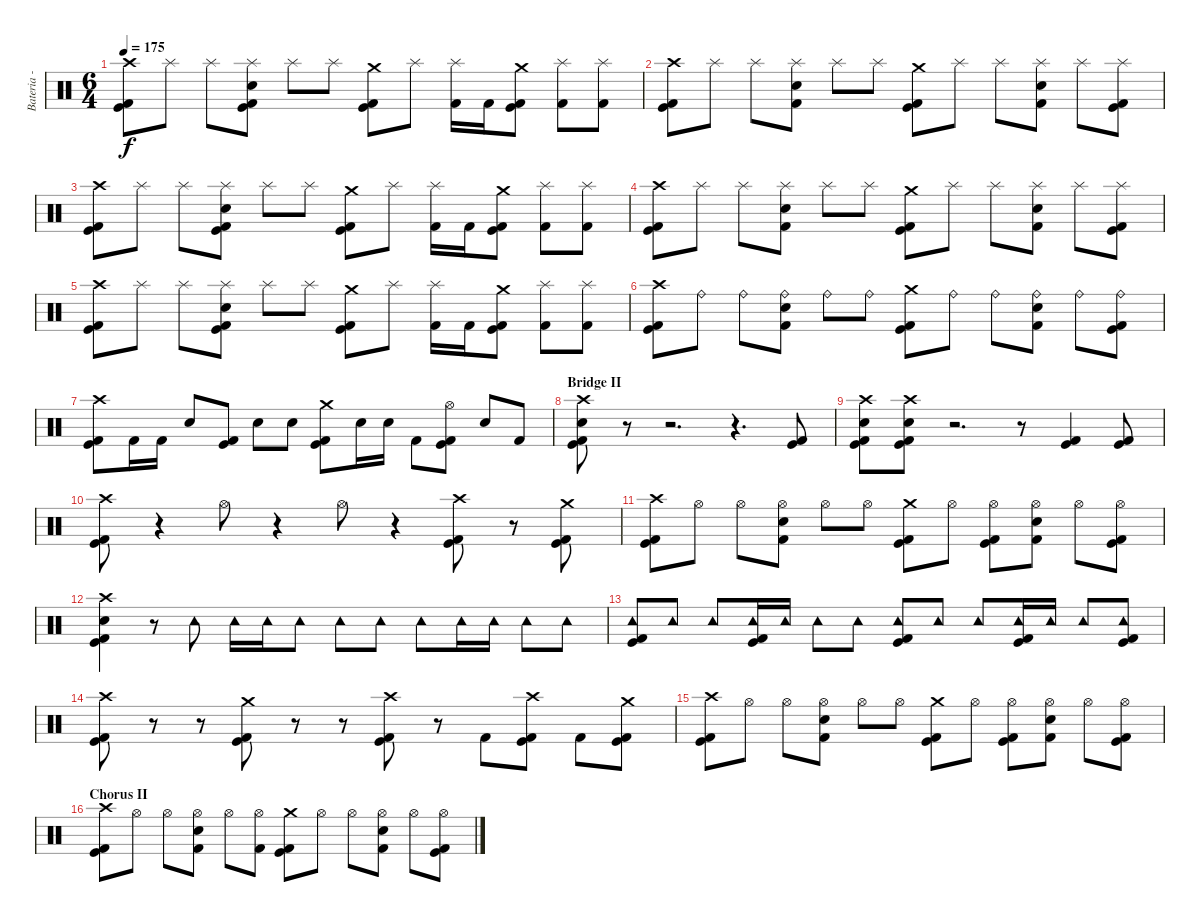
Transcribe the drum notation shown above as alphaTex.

\track ("Bateria - Drums" "Bateria - ") {instrument percussion}
\staff {score}
\articulation defaults
\ts (6 4)
\tempo 175
\clef neutral
\ks c
("Crash high (hit)" "Kick (hit)" "Kick (hit) 2").8{dy f} "Splash (hit)".8 "Splash (hit)".8 ("Splash (hit)" "Snare (hit) 2" "Kick (hit)" "Kick (hit) 2").8 "Splash (hit)".8 "Splash (hit)".8 ("Crash medium (hit)" "Kick (hit)" "Kick (hit) 2").8 "Splash (hit)".8 ("Splash (hit)" "Kick (hit) 2").16 "Kick (hit) 2".16 ("Crash medium (hit)" "Kick (hit)" "Kick (hit) 2").8 ("Splash (hit)" "Kick (hit) 2").8 ("Splash (hit)" "Kick (hit) 2").8 |
("Crash high (hit)" "Kick (hit)" "Kick (hit) 2").8 "Splash (hit)".8 "Splash (hit)".8 ("Splash (hit)" "Snare (hit) 2" "Kick (hit) 2").8 "Splash (hit)".8 "Splash (hit)".8 ("Crash medium (hit)" "Kick (hit)" "Kick (hit) 2").8 "Splash (hit)".8 "Splash (hit)".8 ("Splash (hit)" "Snare (hit) 2" "Kick (hit) 2").8 "Splash (hit)".8 ("Splash (hit)" "Kick (hit)" "Kick (hit) 2").8 |
("Crash high (hit)" "Kick (hit)" "Kick (hit) 2").8 "Splash (hit)".8 "Splash (hit)".8 ("Splash (hit)" "Snare (hit) 2" "Kick (hit)" "Kick (hit) 2").8 "Splash (hit)".8 "Splash (hit)".8 ("Crash medium (hit)" "Kick (hit)" "Kick (hit) 2").8 "Splash (hit)".8 ("Splash (hit)" "Kick (hit) 2").16 "Kick (hit) 2".16 ("Crash medium (hit)" "Kick (hit)" "Kick (hit) 2").8 ("Splash (hit)" "Kick (hit) 2").8 ("Splash (hit)" "Kick (hit) 2").8 |
("Crash high (hit)" "Kick (hit)" "Kick (hit) 2").8 "Splash (hit)".8 "Splash (hit)".8 ("Splash (hit)" "Snare (hit) 2" "Kick (hit) 2").8 "Splash (hit)".8 "Splash (hit)".8 ("Crash medium (hit)" "Kick (hit)" "Kick (hit) 2").8 "Splash (hit)".8 "Splash (hit)".8 ("Splash (hit)" "Snare (hit) 2" "Kick (hit) 2").8 "Splash (hit)".8 ("Splash (hit)" "Kick (hit)" "Kick (hit) 2").8 |
("Crash high (hit)" "Kick (hit)" "Kick (hit) 2").8 "Splash (hit)".8 "Splash (hit)".8 ("Splash (hit)" "Snare (hit) 2" "Kick (hit)" "Kick (hit) 2").8 "Splash (hit)".8 "Splash (hit)".8 ("Crash medium (hit)" "Kick (hit)" "Kick (hit) 2").8 "Splash (hit)".8 ("Splash (hit)" "Kick (hit) 2").16 "Kick (hit) 2".16 ("Crash medium (hit)" "Kick (hit)" "Kick (hit) 2").8 ("Splash (hit)" "Kick (hit) 2").8 ("Splash (hit)" "Kick (hit) 2").8 |
("Crash high (hit)" "Kick (hit)" "Kick (hit) 2").8 "Ride (bell)".8 "Ride (bell)".8 ("Ride (bell)" "Snare (hit) 2" "Kick (hit) 2").8 "Ride (bell)".8 "Ride (bell)".8 ("Crash medium (hit)" "Kick (hit)" "Kick (hit) 2").8 "Ride (bell)".8 "Ride (bell)".8 ("Ride (bell)" "Snare (hit) 2" "Kick (hit) 2").8 "Ride (bell)".8 ("Ride (bell)" "Kick (hit)" "Kick (hit) 2").8 |
("Crash high (hit)" "Kick (hit)" "Kick (hit) 2").8 "Kick (hit) 2".16 "Kick (hit) 2".16 "Snare (hit) 2".8 ("Kick (hit)" "Kick (hit) 2").8 "Snare (hit) 2".8 "Snare (hit) 2".8 ("Crash medium (hit)" "Kick (hit)" "Kick (hit) 2").8 "Electric Snare (hit)".16 "Electric Snare (hit)".16 "Kick (hit) 2".8 ("Hi-Hat (open)" "Kick (hit)" "Kick (hit) 2").8 "Snare (hit) 2".8 "Kick (hit) 2".8 |
\section ("" "Bridge II")
("Crash high (hit)" "Snare (hit) 2" "Kick (hit)" "Kick (hit) 2").8 r.8 r.2{d} r.4{d} ("Kick (hit)" "Kick (hit) 2").8 |
("Crash high (hit)" "Snare (hit) 2" "Kick (hit)" "Kick (hit) 2").8 ("Crash high (hit)" "Snare (hit) 2" "Kick (hit)" "Kick (hit) 2").8 r.2{d} r.8 ("Kick (hit)" "Kick (hit) 2").4 ("Kick (hit)" "Kick (hit) 2").8 |
("Crash high (hit)" "Kick (hit)" "Kick (hit) 2").8 r.4 "Hi-Hat (open)".8 r.4 "Hi-Hat (open)".8 r.4 ("Crash high (hit)" "Kick (hit)" "Kick (hit) 2").8 r.8 ("Crash medium (hit)" "Kick (hit)" "Kick (hit) 2").8 |
("Crash high (hit)" "Kick (hit)" "Kick (hit) 2").8 "Hi-Hat (open)".8 "Hi-Hat (open)".8 ("Hi-Hat (open)" "Snare (hit) 2" "Kick (hit) 2").8 "Hi-Hat (open)".8 "Hi-Hat (open)".8 ("Crash medium (hit)" "Kick (hit)" "Kick (hit) 2").8 "Hi-Hat (open)".8 ("Hi-Hat (open)" "Kick (hit)" "Kick (hit) 2").8 ("Hi-Hat (open)" "Snare (hit) 2" "Kick (hit) 2").8 "Hi-Hat (open)".8 ("Hi-Hat (open)" "Kick (hit)" "Kick (hit) 2").8 |
("Crash high (hit)" "Snare (hit) 2" "Kick (hit)" "Kick (hit) 2").4 r.8 "Tambourine (hit)".8 "Tambourine (hit)".16 "Tambourine (hit)".16 "Tambourine (hit)".8 "Tambourine (hit)".8 "Tambourine (hit)".8 "Tambourine (hit)".8 "Tambourine (hit)".16 "Tambourine (hit)".16 "Tambourine (hit)".8 "Tambourine (hit)".8 |
("Tambourine (hit)" "Kick (hit)" "Kick (hit) 2").8 "Tambourine (hit)".8 "Tambourine (hit)".8 ("Tambourine (hit)" "Kick (hit)" "Kick (hit) 2").16 "Tambourine (hit)".16 "Tambourine (hit)".8 "Tambourine (hit)".8 ("Tambourine (hit)" "Kick (hit)" "Kick (hit) 2").8 "Tambourine (hit)".8 "Tambourine (hit)".8 ("Tambourine (hit)" "Kick (hit)" "Kick (hit) 2").16 "Tambourine (hit)".16 "Tambourine (hit)".8 ("Tambourine (hit)" "Kick (hit)" "Kick (hit) 2").8 |
("Crash high (hit)" "Kick (hit)" "Kick (hit) 2").8 r.8 r.8 ("Crash medium (hit)" "Kick (hit)" "Kick (hit) 2").8 r.8 r.8 ("Crash high (hit)" "Kick (hit)" "Kick (hit) 2").8 r.8 "Kick (hit) 2".8 ("Crash high (hit)" "Kick (hit)" "Kick (hit) 2").8 "Kick (hit) 2".8 ("Crash medium (hit)" "Kick (hit)" "Kick (hit) 2").8 |
("Crash high (hit)" "Kick (hit)" "Kick (hit) 2").8 "Hi-Hat (open)".8 "Hi-Hat (open)".8 ("Hi-Hat (open)" "Snare (hit) 2" "Kick (hit) 2").8 "Hi-Hat (open)".8 "Hi-Hat (open)".8 ("Crash medium (hit)" "Kick (hit)" "Kick (hit) 2").8 "Hi-Hat (open)".8 ("Hi-Hat (open)" "Kick (hit)" "Kick (hit) 2").8 ("Hi-Hat (open)" "Snare (hit) 2" "Kick (hit) 2").8 "Hi-Hat (open)".8 ("Hi-Hat (open)" "Kick (hit)" "Kick (hit) 2").8 |
\section ("" "Chorus II")
("Crash high (hit)" "Kick (hit)" "Kick (hit) 2").8 "Hi-Hat (open)".8 "Hi-Hat (open)".8 ("Hi-Hat (open)" "Snare (hit) 2" "Kick (hit) 2").8 "Hi-Hat (open)".8 ("Hi-Hat (open)" "Kick (hit) 2").8 ("Crash medium (hit)" "Kick (hit)" "Kick (hit) 2").8 "Hi-Hat (open)".8 "Hi-Hat (open)".8 ("Hi-Hat (open)" "Snare (hit) 2" "Kick (hit) 2").8 "Hi-Hat (open)".8 ("Hi-Hat (open)" "Kick (hit)" "Kick (hit) 2").8
